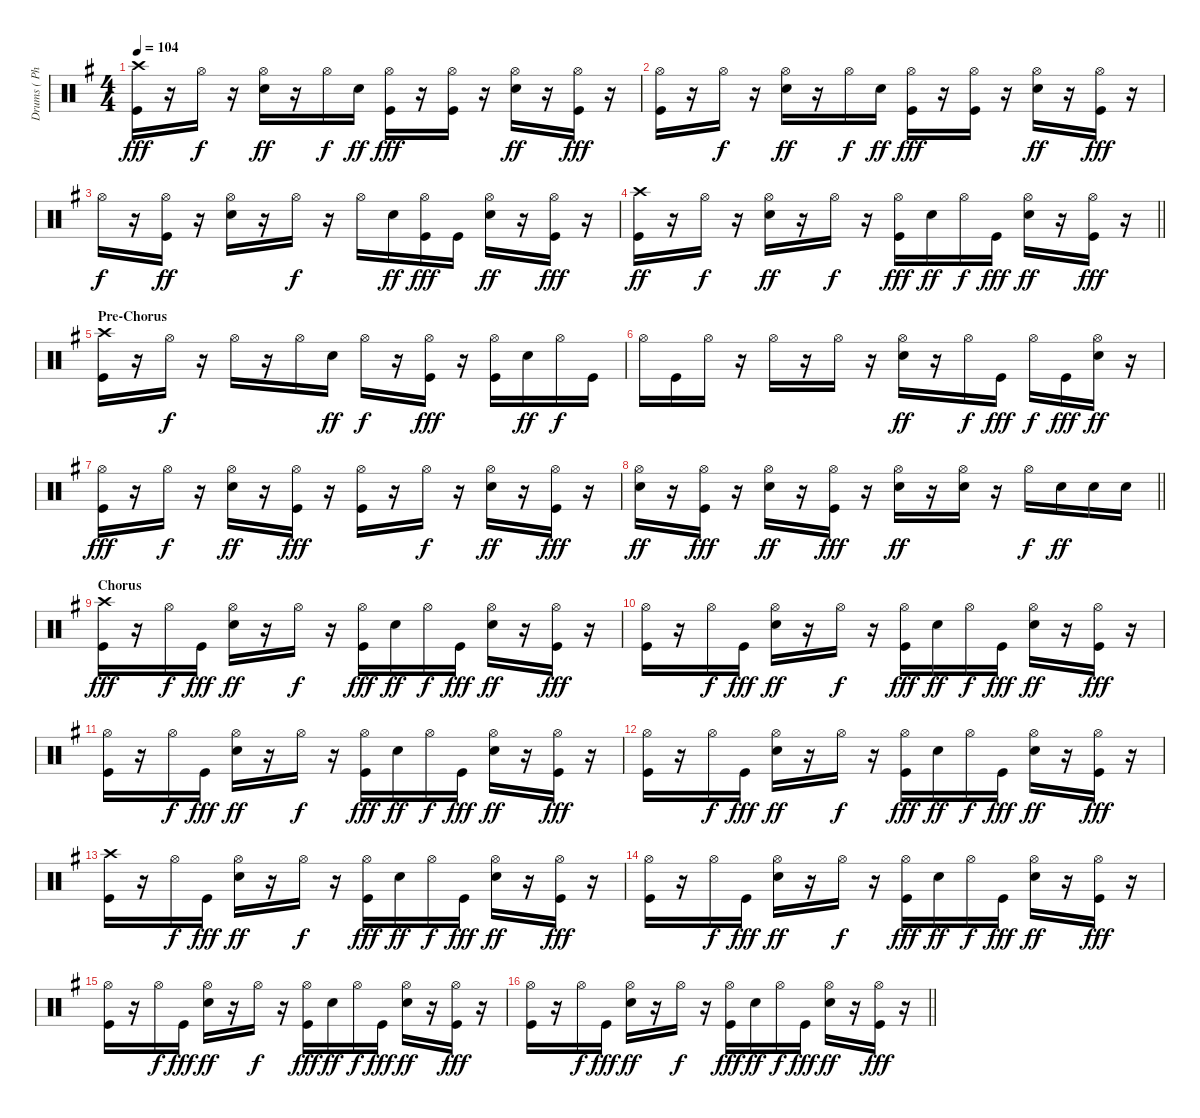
\track ("Drums ( Phillip Selway )" "Drums ( Ph") {instrument percussion}
\staff {score}
\articulation defaults
\ts (4 4)
\tempo 104
\clef neutral
\ks eminor
("Crash high (hit)" "Kick (hit)").16{dy fff} r.16 "Hi-Hat (open)".16{dy f} r.16 ("Hi-Hat (open)" "Electric Snare (hit)").16{dy ff} r.16 "Hi-Hat (open)".16{dy f} "Electric Snare (hit)".16{dy ff} ("Hi-Hat (open)" "Kick (hit)").16{dy fff} r.16 ("Hi-Hat (open)" "Kick (hit)").16 r.16 ("Hi-Hat (open)" "Electric Snare (hit)").16{dy ff} r.16 ("Hi-Hat (open)" "Kick (hit)").16{dy fff} r.16 |
("Hi-Hat (open)" "Kick (hit)").16 r.16 "Hi-Hat (open)".16{dy f} r.16 ("Hi-Hat (open)" "Electric Snare (hit)").16{dy ff} r.16 "Hi-Hat (open)".16{dy f} "Electric Snare (hit)".16{dy ff} ("Hi-Hat (open)" "Kick (hit)").16{dy fff} r.16 ("Hi-Hat (open)" "Kick (hit)").16 r.16 ("Hi-Hat (open)" "Electric Snare (hit)").16{dy ff} r.16 ("Hi-Hat (open)" "Kick (hit)").16{dy fff} r.16 |
"Hi-Hat (open)".16{dy f} r.16 ("Hi-Hat (open)" "Kick (hit)").16{dy ff} r.16 ("Hi-Hat (open)" "Electric Snare (hit)").16 r.16 "Hi-Hat (open)".16{dy f} r.16 "Hi-Hat (open)".16 "Electric Snare (hit)".16{dy ff} ("Hi-Hat (open)" "Kick (hit)").16{dy fff} "Kick (hit)".16 ("Hi-Hat (open)" "Electric Snare (hit)").16{dy ff} r.16 ("Hi-Hat (open)" "Kick (hit)").16{dy fff} r.16 |
\barLineRight lightlight
("Crash high (hit)" "Kick (hit)").16{dy ff} r.16 "Hi-Hat (open)".16{dy f} r.16 ("Hi-Hat (open)" "Electric Snare (hit)").16{dy ff} r.16 "Hi-Hat (open)".16{dy f} r.16 ("Hi-Hat (open)" "Kick (hit)").16{dy fff} "Electric Snare (hit)".16{dy ff} "Hi-Hat (open)".16{dy f} "Kick (hit)".16{dy fff} ("Hi-Hat (open)" "Electric Snare (hit)").16{dy ff} r.16 ("Hi-Hat (open)" "Kick (hit)").16{dy fff} r.16 |
\section ("" "Pre-Chorus")
("Crash high (hit)" "Kick (hit)").16 r.16 "Hi-Hat (open)".16{dy f} r.16 "Hi-Hat (open)".16 r.16 "Hi-Hat (open)".16 "Electric Snare (hit)".16{dy ff} "Hi-Hat (open)".16{dy f} r.16 ("Hi-Hat (open)" "Kick (hit)").16{dy fff} r.16 ("Hi-Hat (open)" "Kick (hit)").16 "Electric Snare (hit)".16{dy ff} "Hi-Hat (open)".16{dy f} "Kick (hit)".16 |
"Hi-Hat (open)".16 "Kick (hit)".16 "Hi-Hat (open)".16 r.16 "Hi-Hat (open)".16 r.16 "Hi-Hat (open)".16 r.16 ("Hi-Hat (open)" "Electric Snare (hit)").16{dy ff} r.16 "Hi-Hat (open)".16{dy f} "Kick (hit)".16{dy fff} "Hi-Hat (open)".16{dy f} "Kick (hit)".16{dy fff} ("Hi-Hat (open)" "Electric Snare (hit)").16{dy ff} r.16 |
("Hi-Hat (open)" "Kick (hit)").16{dy fff} r.16 "Hi-Hat (open)".16{dy f} r.16 ("Hi-Hat (open)" "Electric Snare (hit)").16{dy ff} r.16 ("Hi-Hat (open)" "Kick (hit)").16{dy fff} r.16 ("Hi-Hat (open)" "Kick (hit)").16 r.16 "Hi-Hat (open)".16{dy f} r.16 ("Hi-Hat (open)" "Electric Snare (hit)").16{dy ff} r.16 ("Hi-Hat (open)" "Kick (hit)").16{dy fff} r.16 |
\barLineRight lightlight
("Hi-Hat (open)" "Electric Snare (hit)").16{dy ff} r.16 ("Hi-Hat (open)" "Kick (hit)").16{dy fff} r.16 ("Hi-Hat (open)" "Electric Snare (hit)").16{dy ff} r.16 ("Hi-Hat (open)" "Kick (hit)").16{dy fff} r.16 ("Hi-Hat (open)" "Electric Snare (hit)").16{dy ff} r.16 ("Hi-Hat (open)" "Electric Snare (hit)").16 r.16 "Hi-Hat (open)".16{dy f} "Electric Snare (hit)".16{dy ff} "Electric Snare (hit)".16 "Electric Snare (hit)".16 |
\section ("" "Chorus")
("Crash high (hit)" "Kick (hit)").16{dy fff} r.16 "Hi-Hat (open)".16{dy f} "Kick (hit)".16{dy fff} ("Hi-Hat (open)" "Electric Snare (hit)").16{dy ff} r.16 "Hi-Hat (open)".16{dy f} r.16 ("Hi-Hat (open)" "Kick (hit)").16{dy fff} "Electric Snare (hit)".16{dy ff} "Hi-Hat (open)".16{dy f} "Kick (hit)".16{dy fff} ("Hi-Hat (open)" "Electric Snare (hit)").16{dy ff} r.16 ("Hi-Hat (open)" "Kick (hit)").16{dy fff} r.16 |
("Hi-Hat (open)" "Kick (hit)").16 r.16 "Hi-Hat (open)".16{dy f} "Kick (hit)".16{dy fff} ("Hi-Hat (open)" "Electric Snare (hit)").16{dy ff} r.16 "Hi-Hat (open)".16{dy f} r.16 ("Hi-Hat (open)" "Kick (hit)").16{dy fff} "Electric Snare (hit)".16{dy ff} "Hi-Hat (open)".16{dy f} "Kick (hit)".16{dy fff} ("Hi-Hat (open)" "Electric Snare (hit)").16{dy ff} r.16 ("Hi-Hat (open)" "Kick (hit)").16{dy fff} r.16 |
("Hi-Hat (open)" "Kick (hit)").16 r.16 "Hi-Hat (open)".16{dy f} "Kick (hit)".16{dy fff} ("Hi-Hat (open)" "Electric Snare (hit)").16{dy ff} r.16 "Hi-Hat (open)".16{dy f} r.16 ("Hi-Hat (open)" "Kick (hit)").16{dy fff} "Electric Snare (hit)".16{dy ff} "Hi-Hat (open)".16{dy f} "Kick (hit)".16{dy fff} ("Hi-Hat (open)" "Electric Snare (hit)").16{dy ff} r.16 ("Hi-Hat (open)" "Kick (hit)").16{dy fff} r.16 |
("Hi-Hat (open)" "Kick (hit)").16 r.16 "Hi-Hat (open)".16{dy f} "Kick (hit)".16{dy fff} ("Hi-Hat (open)" "Electric Snare (hit)").16{dy ff} r.16 "Hi-Hat (open)".16{dy f} r.16 ("Hi-Hat (open)" "Kick (hit)").16{dy fff} "Electric Snare (hit)".16{dy ff} "Hi-Hat (open)".16{dy f} "Kick (hit)".16{dy fff} ("Hi-Hat (open)" "Electric Snare (hit)").16{dy ff} r.16 ("Hi-Hat (open)" "Kick (hit)").16{dy fff} r.16 |
("Crash high (hit)" "Kick (hit)").16 r.16 "Hi-Hat (open)".16{dy f} "Kick (hit)".16{dy fff} ("Hi-Hat (open)" "Electric Snare (hit)").16{dy ff} r.16 "Hi-Hat (open)".16{dy f} r.16 ("Hi-Hat (open)" "Kick (hit)").16{dy fff} "Electric Snare (hit)".16{dy ff} "Hi-Hat (open)".16{dy f} "Kick (hit)".16{dy fff} ("Hi-Hat (open)" "Electric Snare (hit)").16{dy ff} r.16 ("Hi-Hat (open)" "Kick (hit)").16{dy fff} r.16 |
("Hi-Hat (open)" "Kick (hit)").16 r.16 "Hi-Hat (open)".16{dy f} "Kick (hit)".16{dy fff} ("Hi-Hat (open)" "Electric Snare (hit)").16{dy ff} r.16 "Hi-Hat (open)".16{dy f} r.16 ("Hi-Hat (open)" "Kick (hit)").16{dy fff} "Electric Snare (hit)".16{dy ff} "Hi-Hat (open)".16{dy f} "Kick (hit)".16{dy fff} ("Hi-Hat (open)" "Electric Snare (hit)").16{dy ff} r.16 ("Hi-Hat (open)" "Kick (hit)").16{dy fff} r.16 |
("Hi-Hat (open)" "Kick (hit)").16 r.16 "Hi-Hat (open)".16{dy f} "Kick (hit)".16{dy fff} ("Hi-Hat (open)" "Electric Snare (hit)").16{dy ff} r.16 "Hi-Hat (open)".16{dy f} r.16 ("Hi-Hat (open)" "Kick (hit)").16{dy fff} "Electric Snare (hit)".16{dy ff} "Hi-Hat (open)".16{dy f} "Kick (hit)".16{dy fff} ("Hi-Hat (open)" "Electric Snare (hit)").16{dy ff} r.16 ("Hi-Hat (open)" "Kick (hit)").16{dy fff} r.16 |
\barLineRight lightlight
("Hi-Hat (open)" "Kick (hit)").16 r.16 "Hi-Hat (open)".16{dy f} "Kick (hit)".16{dy fff} ("Hi-Hat (open)" "Electric Snare (hit)").16{dy ff} r.16 "Hi-Hat (open)".16{dy f} r.16 ("Hi-Hat (open)" "Kick (hit)").16{dy fff} "Electric Snare (hit)".16{dy ff} "Hi-Hat (open)".16{dy f} "Kick (hit)".16{dy fff} ("Hi-Hat (open)" "Electric Snare (hit)").16{dy ff} r.16 ("Hi-Hat (open)" "Kick (hit)").16{dy fff} r.16
